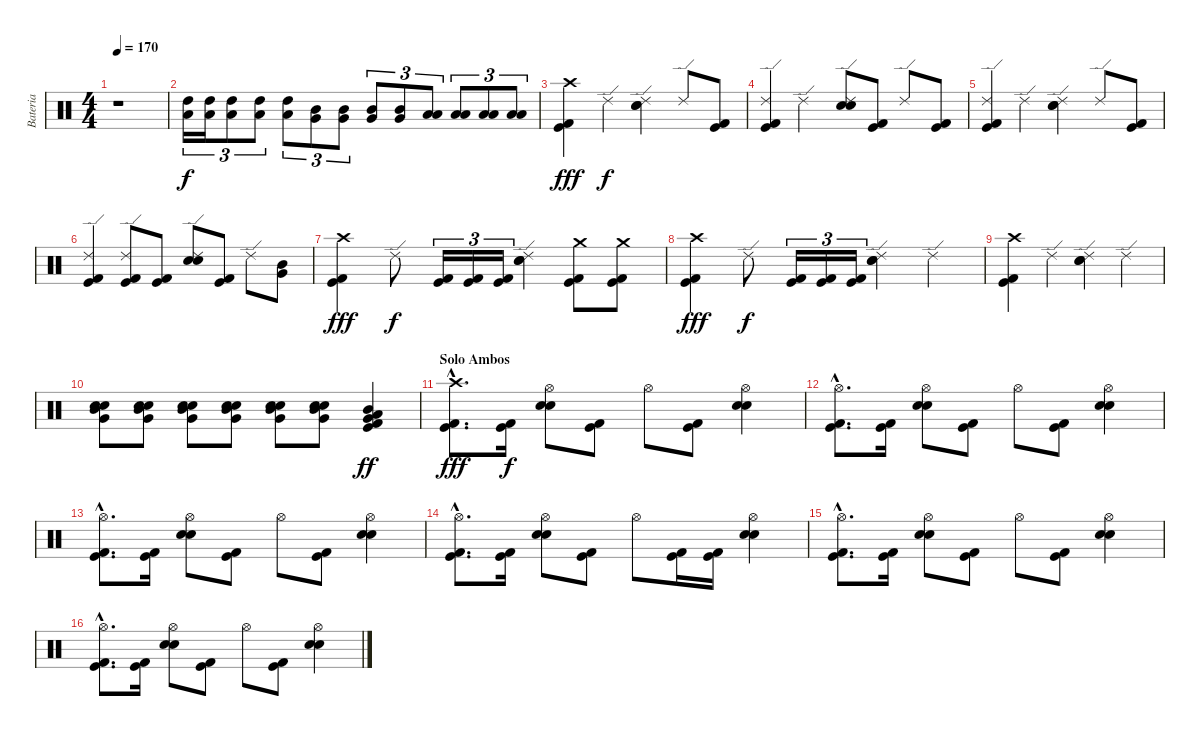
\track ("Bateria" "Bateria") {instrument percussion}
\staff {score}
\articulation defaults
\ts (4 4)
\tempo 170
\clef neutral
\ks c
r.1{dy f} |
("High Tom (hit)" "Low Tom (hit)").16{tu (3 2)} ("High Tom (hit)" "Low Tom (hit)").16{tu (3 2)} ("High Tom (hit)" "Low Tom (hit)").8{tu (3 2)} ("High Tom (hit)" "Low Tom (hit)").8{tu (3 2)} ("High Tom (hit)" "Low Tom (hit)").8{tu (3 2)} ("Mid Tom (hit)" "Very Low Tom (hit)").8{tu (3 2)} ("Mid Tom (hit)" "Very Low Tom (hit)").8{tu (3 2)} ("Mid Tom (hit)" "Very Low Tom (hit)").8{tu (3 2)} ("Mid Tom (hit)" "Very Low Tom (hit)").8{tu (3 2)} ("Low Tom (hit)" "Low Floor Tom (hit)").8{tu (3 2)} ("Low Tom (hit)" "Low Floor Tom (hit)").8{tu (3 2)} ("Low Tom (hit)" "Low Floor Tom (hit)").8{tu (3 2)} ("Low Tom (hit)" "Low Floor Tom (hit)").8{tu (3 2)} |
("Crash high (hit)" "Kick (hit) 2" "Kick (hit)").4{dy fff} "Ride (edge) 2".4{dy f} ("Ride (edge) 2" "Electric Snare (hit)" "Snare (hit) 2").4 "Ride (edge) 2".8 ("Kick (hit) 2" "Kick (hit)").8 |
("Ride (edge) 2" "Kick (hit) 2" "Kick (hit)").4 "Ride (edge) 2".4 ("Ride (edge) 2" "Electric Snare (hit)" "Snare (hit) 2").8 ("Kick (hit) 2" "Kick (hit)").8 "Ride (edge) 2".8 ("Kick (hit) 2" "Kick (hit)").8 |
("Ride (edge) 2" "Kick (hit) 2" "Kick (hit)").4 "Ride (edge) 2".4 ("Ride (edge) 2" "Electric Snare (hit)" "Snare (hit) 2").4 "Ride (edge) 2".8 ("Kick (hit) 2" "Kick (hit)").8 |
("Ride (edge) 2" "Kick (hit) 2" "Kick (hit)").4 ("Ride (edge) 2" "Kick (hit) 2" "Kick (hit)").8 ("Kick (hit) 2" "Kick (hit)").8 ("Ride (edge) 2" "Electric Snare (hit)" "Snare (hit) 2").8 ("Kick (hit) 2" "Kick (hit)").8 "Ride (edge) 2".8 ("Mid Tom (hit)" "Very Low Tom (hit)").8 |
("Crash high (hit)" "Kick (hit) 2" "Kick (hit)").4{dy fff} "Ride (edge) 2".8{dy f} ("Kick (hit) 2" "Kick (hit)").16{tu (3 2)} ("Kick (hit) 2" "Kick (hit)").16{tu (3 2)} ("Kick (hit) 2" "Kick (hit)").16{tu (3 2)} ("Ride (edge) 2" "Electric Snare (hit)" "Snare (hit) 2").4 ("Crash medium (hit)" "Kick (hit) 2" "Kick (hit)").8 ("Crash medium (hit)" "Kick (hit) 2" "Kick (hit)").8 |
("Crash high (hit)" "Kick (hit) 2" "Kick (hit)").4{dy fff} "Ride (edge) 2".8{dy f} ("Kick (hit) 2" "Kick (hit)").16{tu (3 2)} ("Kick (hit) 2" "Kick (hit)").16{tu (3 2)} ("Kick (hit) 2" "Kick (hit)").16{tu (3 2)} ("Ride (edge) 2" "Electric Snare (hit)" "Snare (hit) 2").4 "Ride (edge) 2".4 |
("Crash high (hit)" "Kick (hit) 2" "Kick (hit)").4 "Ride (edge) 2".4 ("Ride (edge) 2" "Electric Snare (hit)" "Snare (hit) 2").4 "Ride (edge) 2".4 |
("Mid Tom (hit)" "Very Low Tom (hit)" "Electric Snare (hit)" "Snare (hit) 2").8 ("Mid Tom (hit)" "Very Low Tom (hit)" "Electric Snare (hit)" "Snare (hit) 2").8 ("Mid Tom (hit)" "Very Low Tom (hit)" "Electric Snare (hit)" "Snare (hit) 2").8 ("Mid Tom (hit)" "Very Low Tom (hit)" "Electric Snare (hit)" "Snare (hit) 2").8 ("Mid Tom (hit)" "Very Low Tom (hit)" "Electric Snare (hit)" "Snare (hit) 2").8 ("Mid Tom (hit)" "Very Low Tom (hit)" "Electric Snare (hit)" "Snare (hit) 2").8 ("Low Tom (hit)" "Mid Tom (hit)" "Very Low Tom (hit)" "Kick (hit) 2" "Kick (hit)").4{dy ff} |
\section ("" "Solo Ambos")
("Crash high (hit)"{hac} "Kick (hit) 2"{hac} "Kick (hit)"{hac}).8{d dy fff} ("Kick (hit) 2" "Kick (hit)").16{dy f} ("Hi-Hat (open)" "Electric Snare (hit)" "Snare (hit) 2").8 ("Kick (hit) 2" "Kick (hit)").8 "Hi-Hat (open)".8 ("Kick (hit) 2" "Kick (hit)").8 ("Hi-Hat (open)" "Electric Snare (hit)" "Snare (hit) 2").4 |
("Hi-Hat (open)"{hac} "Kick (hit) 2"{hac} "Kick (hit)"{hac}).8{d} ("Kick (hit) 2" "Kick (hit)").16 ("Hi-Hat (open)" "Electric Snare (hit)" "Snare (hit) 2").8 ("Kick (hit) 2" "Kick (hit)").8 "Hi-Hat (open)".8 ("Kick (hit) 2" "Kick (hit)").8 ("Hi-Hat (open)" "Electric Snare (hit)" "Snare (hit) 2").4 |
("Hi-Hat (open)"{hac} "Kick (hit) 2"{hac} "Kick (hit)"{hac}).8{d} ("Kick (hit) 2" "Kick (hit)").16 ("Hi-Hat (open)" "Electric Snare (hit)" "Snare (hit) 2").8 ("Kick (hit) 2" "Kick (hit)").8 "Hi-Hat (open)".8 ("Kick (hit) 2" "Kick (hit)").8 ("Hi-Hat (open)" "Electric Snare (hit)" "Snare (hit) 2").4 |
("Hi-Hat (open)"{hac} "Kick (hit) 2"{hac} "Kick (hit)"{hac}).8{d} ("Kick (hit) 2" "Kick (hit)").16 ("Hi-Hat (open)" "Electric Snare (hit)" "Snare (hit) 2").8 ("Kick (hit) 2" "Kick (hit)").8 "Hi-Hat (open)".8 ("Kick (hit) 2" "Kick (hit)").16 ("Kick (hit) 2" "Kick (hit)").16 ("Hi-Hat (open)" "Electric Snare (hit)" "Snare (hit) 2").4 |
("Hi-Hat (open)"{hac} "Kick (hit) 2"{hac} "Kick (hit)"{hac}).8{d} ("Kick (hit) 2" "Kick (hit)").16 ("Hi-Hat (open)" "Electric Snare (hit)" "Snare (hit) 2").8 ("Kick (hit) 2" "Kick (hit)").8 "Hi-Hat (open)".8 ("Kick (hit) 2" "Kick (hit)").8 ("Hi-Hat (open)" "Electric Snare (hit)" "Snare (hit) 2").4 |
("Hi-Hat (open)"{hac} "Kick (hit) 2"{hac} "Kick (hit)"{hac}).8{d} ("Kick (hit) 2" "Kick (hit)").16 ("Hi-Hat (open)" "Electric Snare (hit)" "Snare (hit) 2").8 ("Kick (hit) 2" "Kick (hit)").8 "Hi-Hat (open)".8 ("Kick (hit) 2" "Kick (hit)").8 ("Hi-Hat (open)" "Electric Snare (hit)" "Snare (hit) 2").4
